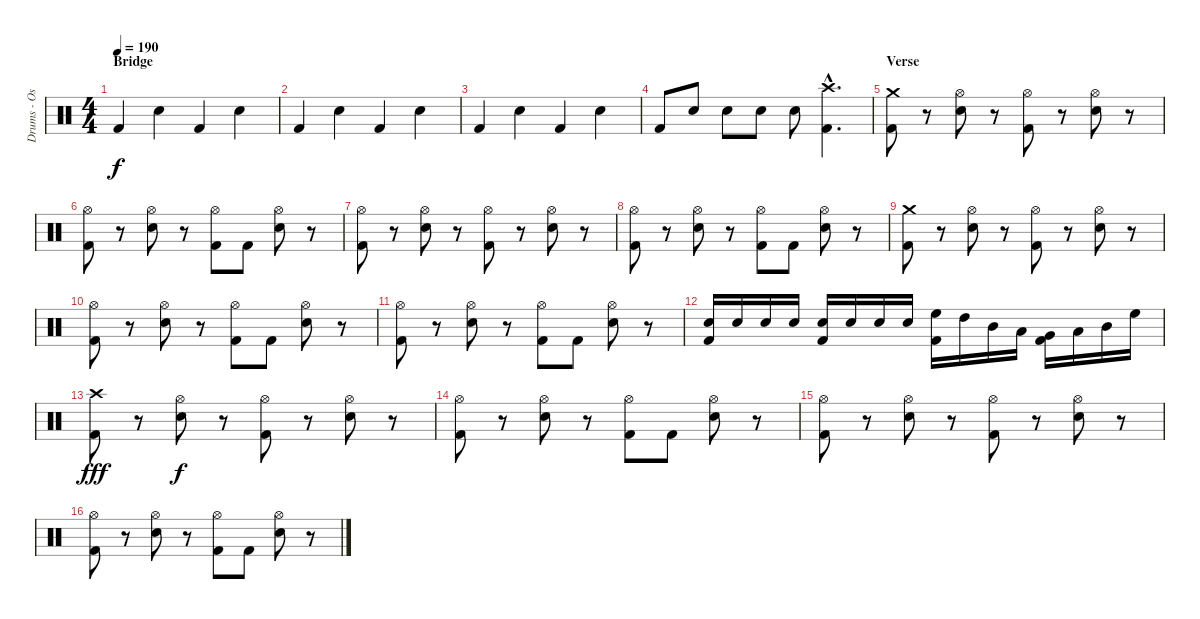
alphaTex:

\track ("Drums - Oskar Karlsson" "Drums - Os") {instrument percussion}
\staff {score}
\articulation defaults
\ts (4 4)
\section ("" "Bridge")
\tempo 190
\clef neutral
\ks c "Kick (hit) 2".4{dy f} "Electric Snare (hit)".4 "Kick (hit) 2".4 "Electric Snare (hit)".4
|
"Kick (hit) 2".4 "Electric Snare (hit)".4 "Kick (hit) 2".4 "Electric Snare (hit)".4 |
"Kick (hit) 2".4 "Electric Snare (hit)".4 "Kick (hit) 2".4 "Electric Snare (hit)".4 |
"Kick (hit) 2".8 "Electric Snare (hit)".8 "Electric Snare (hit)".8 "Electric Snare (hit)".8 "Electric Snare (hit)".8 ("Crash high (hit)"{hac} "Kick (hit) 2"{hac}).4{d} |
\section ("" "Verse")
("Crash medium (hit)" "Kick (hit) 2").8 r.8 ("Hi-Hat (open)" "Electric Snare (hit)").8 r.8 ("Hi-Hat (open)" "Kick (hit) 2").8 r.8 ("Hi-Hat (open)" "Electric Snare (hit)").8 r.8 |
("Hi-Hat (open)" "Kick (hit) 2").8 r.8 ("Hi-Hat (open)" "Electric Snare (hit)").8 r.8 ("Hi-Hat (open)" "Kick (hit) 2").8 "Kick (hit) 2".8 ("Hi-Hat (open)" "Electric Snare (hit)").8 r.8 |
("Hi-Hat (open)" "Kick (hit) 2").8 r.8 ("Hi-Hat (open)" "Electric Snare (hit)").8 r.8 ("Hi-Hat (open)" "Kick (hit) 2").8 r.8 ("Hi-Hat (open)" "Electric Snare (hit)").8 r.8 |
("Hi-Hat (open)" "Kick (hit) 2").8 r.8 ("Hi-Hat (open)" "Electric Snare (hit)").8 r.8 ("Hi-Hat (open)" "Kick (hit) 2").8 "Kick (hit) 2".8 ("Hi-Hat (open)" "Electric Snare (hit)").8 r.8 |
("Crash medium (hit)" "Kick (hit) 2").8 r.8 ("Hi-Hat (open)" "Electric Snare (hit)").8 r.8 ("Hi-Hat (open)" "Kick (hit) 2").8 r.8 ("Hi-Hat (open)" "Electric Snare (hit)").8 r.8 |
("Hi-Hat (open)" "Kick (hit) 2").8 r.8 ("Hi-Hat (open)" "Electric Snare (hit)").8 r.8 ("Hi-Hat (open)" "Kick (hit) 2").8 "Kick (hit) 2".8 ("Hi-Hat (open)" "Electric Snare (hit)").8 r.8 |
("Hi-Hat (open)" "Kick (hit) 2").8 r.8 ("Hi-Hat (open)" "Electric Snare (hit)").8 r.8 ("Hi-Hat (open)" "Kick (hit) 2").8 "Kick (hit) 2".8 ("Hi-Hat (open)" "Electric Snare (hit)").8 r.8 |
("Electric Snare (hit)" "Kick (hit) 2").16 "Electric Snare (hit)".16 "Electric Snare (hit)".16 "Electric Snare (hit)".16 ("Electric Snare (hit)" "Kick (hit) 2").16 "Electric Snare (hit)".16 "Electric Snare (hit)".16 "Electric Snare (hit)".16 ("High Floor Tom (hit)" "Kick (hit) 2").16 "High Tom (hit)".16 "Mid Tom (hit)".16 "Low Tom (hit)".16 ("Very Low Tom (hit)" "Kick (hit) 2").16 "Low Tom (hit)".16 "Mid Tom (hit)".16 "High Floor Tom (hit)".16 |
("Crash high (hit)" "Kick (hit) 2").8{dy fff} r.8 ("Hi-Hat (open)" "Electric Snare (hit)").8{dy f} r.8 ("Hi-Hat (open)" "Kick (hit) 2").8 r.8 ("Hi-Hat (open)" "Electric Snare (hit)").8 r.8 |
("Hi-Hat (open)" "Kick (hit) 2").8 r.8 ("Hi-Hat (open)" "Electric Snare (hit)").8 r.8 ("Hi-Hat (open)" "Kick (hit) 2").8 "Kick (hit) 2".8 ("Hi-Hat (open)" "Electric Snare (hit)").8 r.8 |
("Hi-Hat (open)" "Kick (hit) 2").8 r.8 ("Hi-Hat (open)" "Electric Snare (hit)").8 r.8 ("Hi-Hat (open)" "Kick (hit) 2").8 r.8 ("Hi-Hat (open)" "Electric Snare (hit)").8 r.8 |
("Hi-Hat (open)" "Kick (hit) 2").8 r.8 ("Hi-Hat (open)" "Electric Snare (hit)").8 r.8 ("Hi-Hat (open)" "Kick (hit) 2").8 "Kick (hit) 2".8 ("Hi-Hat (open)" "Electric Snare (hit)").8 r.8
